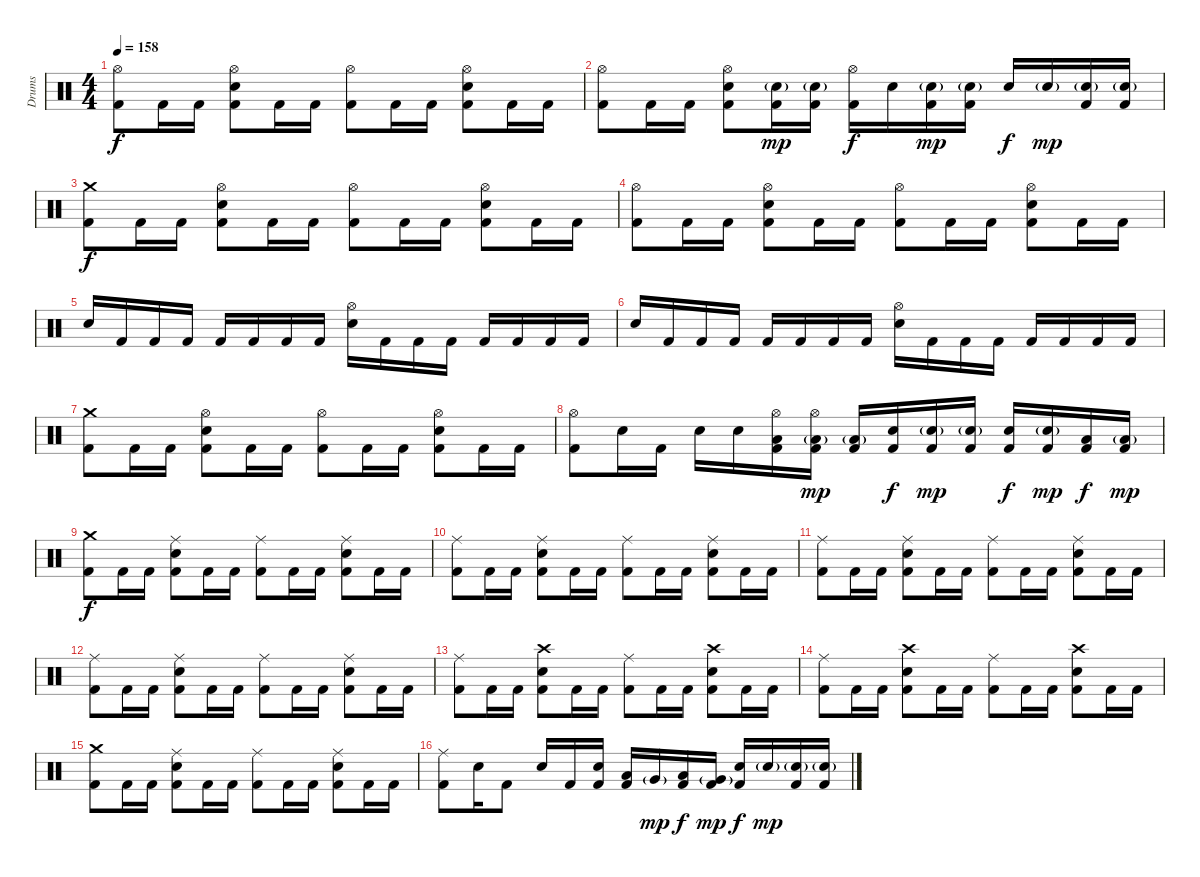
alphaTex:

\track ("Drums" "Drums") {instrument percussion}
\staff {score}
\articulation defaults
\ts (4 4)
\tempo 158
\clef neutral
\ks c
("Hi-Hat (open)" "Kick (hit) 2").8{dy f} "Kick (hit) 2".16 "Kick (hit) 2".16 ("Hi-Hat (open)" "Electric Snare (hit)" "Kick (hit) 2").8 "Kick (hit) 2".16 "Kick (hit) 2".16 ("Hi-Hat (open)" "Kick (hit) 2").8 "Kick (hit) 2".16 "Kick (hit) 2".16 ("Hi-Hat (open)" "Electric Snare (hit)" "Kick (hit) 2").8 "Kick (hit) 2".16 "Kick (hit) 2".16 |
("Hi-Hat (open)" "Kick (hit) 2").8 "Kick (hit) 2".16 "Kick (hit) 2".16 ("Hi-Hat (open)" "Electric Snare (hit)" "Kick (hit) 2").8 ("Electric Snare (hit)"{g} "Kick (hit) 2").16{dy mp} ("Electric Snare (hit)"{g} "Kick (hit) 2").16 ("Hi-Hat (open)" "Kick (hit) 2").16{dy f} "Electric Snare (hit)".16 ("Electric Snare (hit)"{g} "Kick (hit) 2").16{dy mp} ("Electric Snare (hit)"{g} "Kick (hit) 2").16 "Electric Snare (hit)".16{dy f} "Electric Snare (hit)"{g}.16{dy mp} ("Electric Snare (hit)"{g} "Kick (hit) 2").16 ("Electric Snare (hit)"{g} "Kick (hit) 2").16 |
\section ("" "")
("Crash medium (hit)" "Kick (hit) 2").8{dy f} "Kick (hit) 2".16 "Kick (hit) 2".16 ("Hi-Hat (open)" "Electric Snare (hit)" "Kick (hit) 2").8 "Kick (hit) 2".16 "Kick (hit) 2".16 ("Hi-Hat (open)" "Kick (hit) 2").8 "Kick (hit) 2".16 "Kick (hit) 2".16 ("Hi-Hat (open)" "Electric Snare (hit)" "Kick (hit) 2").8 "Kick (hit) 2".16 "Kick (hit) 2".16 |
("Hi-Hat (open)" "Kick (hit) 2").8 "Kick (hit) 2".16 "Kick (hit) 2".16 ("Hi-Hat (open)" "Electric Snare (hit)" "Kick (hit) 2").8 "Kick (hit) 2".16 "Kick (hit) 2".16 ("Hi-Hat (open)" "Kick (hit) 2").8 "Kick (hit) 2".16 "Kick (hit) 2".16 ("Hi-Hat (open)" "Electric Snare (hit)" "Kick (hit) 2").8 "Kick (hit) 2".16 "Kick (hit) 2".16 |
"Electric Snare (hit)".16 "Kick (hit) 2".16 "Kick (hit) 2".16 "Kick (hit) 2".16 "Kick (hit) 2".16 "Kick (hit) 2".16 "Kick (hit) 2".16 "Kick (hit) 2".16 ("Hi-Hat (open)" "Electric Snare (hit)").16 "Kick (hit) 2".16 "Kick (hit) 2".16 "Kick (hit) 2".16 "Kick (hit) 2".16 "Kick (hit) 2".16 "Kick (hit) 2".16 "Kick (hit) 2".16 |
"Electric Snare (hit)".16 "Kick (hit) 2".16 "Kick (hit) 2".16 "Kick (hit) 2".16 "Kick (hit) 2".16 "Kick (hit) 2".16 "Kick (hit) 2".16 "Kick (hit) 2".16 ("Hi-Hat (open)" "Electric Snare (hit)").16 "Kick (hit) 2".16 "Kick (hit) 2".16 "Kick (hit) 2".16 "Kick (hit) 2".16 "Kick (hit) 2".16 "Kick (hit) 2".16 "Kick (hit) 2".16 |
("Crash medium (hit)" "Kick (hit) 2").8 "Kick (hit) 2".16 "Kick (hit) 2".16 ("Hi-Hat (open)" "Electric Snare (hit)" "Kick (hit) 2").8 "Kick (hit) 2".16 "Kick (hit) 2".16 ("Hi-Hat (open)" "Kick (hit) 2").8 "Kick (hit) 2".16 "Kick (hit) 2".16 ("Hi-Hat (open)" "Electric Snare (hit)" "Kick (hit) 2").8 "Kick (hit) 2".16 "Kick (hit) 2".16 |
("Hi-Hat (open)" "Kick (hit) 2").8 "Electric Snare (hit)".16 "Kick (hit) 2".16 "Electric Snare (hit)".16 "Electric Snare (hit)".16 ("Hi-Hat (open)" "Low Tom (hit)" "Kick (hit) 2").16 ("Hi-Hat (open)" "Low Tom (hit)"{g} "Kick (hit) 2").16{dy mp} ("Low Tom (hit)"{g} "Kick (hit) 2").16 ("Electric Snare (hit)" "Kick (hit) 2").16{dy f} ("Electric Snare (hit)"{g} "Kick (hit) 2").16{dy mp} ("Electric Snare (hit)"{g} "Kick (hit) 2").16 ("Electric Snare (hit)" "Kick (hit) 2").16{dy f} ("Electric Snare (hit)"{g} "Kick (hit) 2").16{dy mp} ("Low Tom (hit)" "Kick (hit) 2").16{dy f} ("Low Tom (hit)"{g} "Kick (hit) 2").16{dy mp} |
\section ("" "")
("Crash medium (hit)" "Kick (hit) 2").8{dy f} "Kick (hit) 2".16 "Kick (hit) 2".16 ("Ride (middle)" "Electric Snare (hit)" "Kick (hit) 2").8 "Kick (hit) 2".16 "Kick (hit) 2".16 ("Ride (middle)" "Kick (hit) 2").8 "Kick (hit) 2".16 "Kick (hit) 2".16 ("Ride (middle)" "Electric Snare (hit)" "Kick (hit) 2").8 "Kick (hit) 2".16 "Kick (hit) 2".16 |
("Ride (middle)" "Kick (hit) 2").8 "Kick (hit) 2".16 "Kick (hit) 2".16 ("Ride (middle)" "Electric Snare (hit)" "Kick (hit) 2").8 "Kick (hit) 2".16 "Kick (hit) 2".16 ("Ride (middle)" "Kick (hit) 2").8 "Kick (hit) 2".16 "Kick (hit) 2".16 ("Ride (middle)" "Electric Snare (hit)" "Kick (hit) 2").8 "Kick (hit) 2".16 "Kick (hit) 2".16 |
("Ride (middle)" "Kick (hit) 2").8 "Kick (hit) 2".16 "Kick (hit) 2".16 ("Ride (middle)" "Electric Snare (hit)" "Kick (hit) 2").8 "Kick (hit) 2".16 "Kick (hit) 2".16 ("Ride (middle)" "Kick (hit) 2").8 "Kick (hit) 2".16 "Kick (hit) 2".16 ("Ride (middle)" "Electric Snare (hit)" "Kick (hit) 2").8 "Kick (hit) 2".16 "Kick (hit) 2".16 |
("Ride (middle)" "Kick (hit) 2").8 "Kick (hit) 2".16 "Kick (hit) 2".16 ("Ride (middle)" "Electric Snare (hit)" "Kick (hit) 2").8 "Kick (hit) 2".16 "Kick (hit) 2".16 ("Ride (middle)" "Kick (hit) 2").8 "Kick (hit) 2".16 "Kick (hit) 2".16 ("Ride (middle)" "Electric Snare (hit)" "Kick (hit) 2").8 "Kick (hit) 2".16 "Kick (hit) 2".16 |
("Ride (middle)" "Kick (hit) 2").8 "Kick (hit) 2".16 "Kick (hit) 2".16 ("Crash high (hit)" "Electric Snare (hit)" "Kick (hit) 2").8 "Kick (hit) 2".16 "Kick (hit) 2".16 ("Ride (middle)" "Kick (hit) 2").8 "Kick (hit) 2".16 "Kick (hit) 2".16 ("Crash high (hit)" "Electric Snare (hit)" "Kick (hit) 2").8 "Kick (hit) 2".16 "Kick (hit) 2".16 |
("Ride (middle)" "Kick (hit) 2").8 "Kick (hit) 2".16 "Kick (hit) 2".16 ("Crash high (hit)" "Electric Snare (hit)" "Kick (hit) 2").8 "Kick (hit) 2".16 "Kick (hit) 2".16 ("Ride (middle)" "Kick (hit) 2").8 "Kick (hit) 2".16 "Kick (hit) 2".16 ("Crash high (hit)" "Electric Snare (hit)" "Kick (hit) 2").8 "Kick (hit) 2".16 "Kick (hit) 2".16 |
("Crash medium (hit)" "Kick (hit) 2").8 "Kick (hit) 2".16 "Kick (hit) 2".16 ("Ride (middle)" "Electric Snare (hit)" "Kick (hit) 2").8 "Kick (hit) 2".16 "Kick (hit) 2".16 ("Ride (middle)" "Kick (hit) 2").8 "Kick (hit) 2".16 "Kick (hit) 2".16 ("Ride (middle)" "Electric Snare (hit)" "Kick (hit) 2").8 "Kick (hit) 2".16 "Kick (hit) 2".16 |
("Ride (middle)" "Kick (hit) 2").8 "Electric Snare (hit)".16 "Kick (hit) 2".8 "Electric Snare (hit)".16 "Kick (hit) 2".16 ("Electric Snare (hit)" "Kick (hit) 2").16 ("Low Tom (hit)" "Kick (hit) 2").16 "Very Low Tom (hit)"{g}.16{dy mp} ("Low Tom (hit)" "Kick (hit) 2").16{dy f} ("Very Low Tom (hit)"{g} "Kick (hit) 2").16{dy mp} ("Electric Snare (hit)" "Kick (hit) 2").16{dy f} "Electric Snare (hit)"{g}.16{dy mp} ("Electric Snare (hit)"{g} "Kick (hit) 2").16 ("Electric Snare (hit)"{g} "Kick (hit) 2").16
